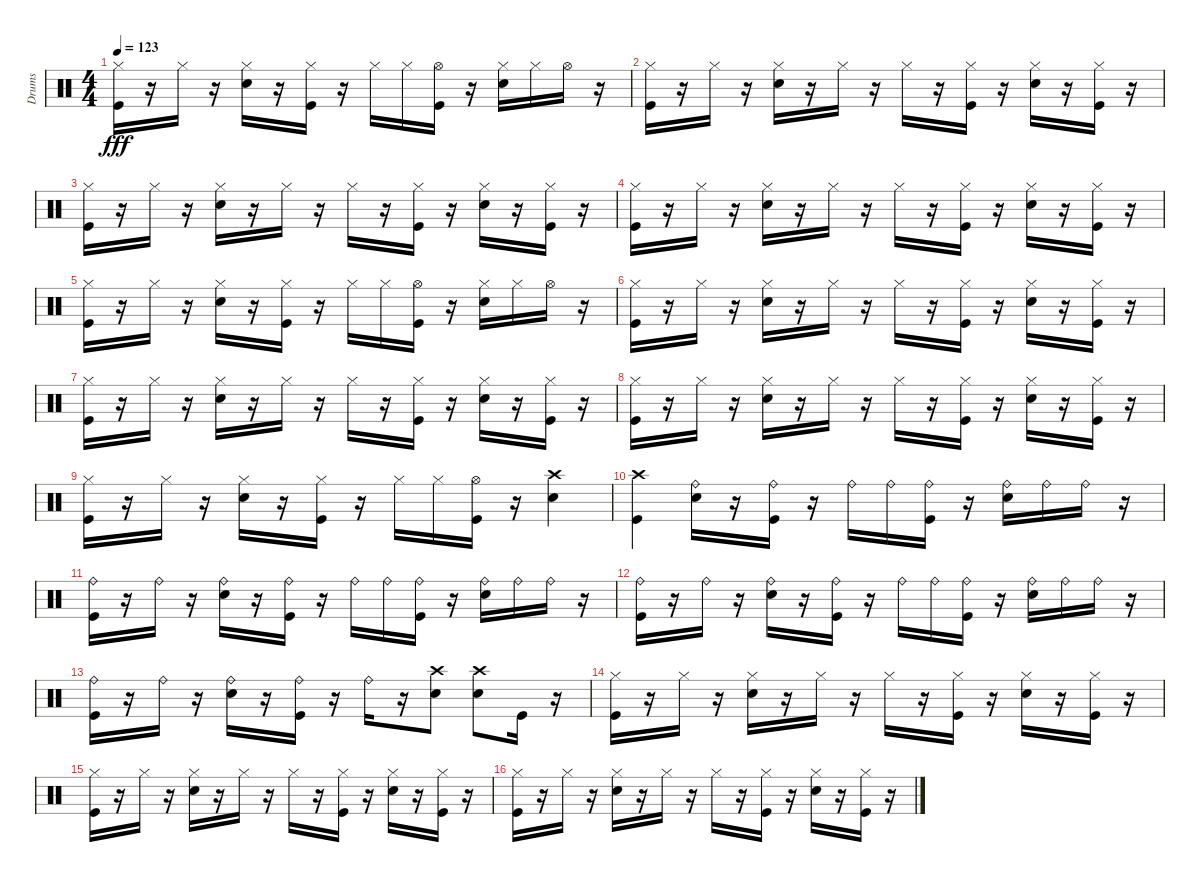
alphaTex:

\track ("Drums" "Drums") {instrument percussion}
\staff {score}
\articulation defaults
\ts (4 4)
\tempo 123
\clef neutral
\ks c
("Kick (hit)" "Hi-Hat (closed)").16{dy fff} r.16 "Hi-Hat (closed)".16 r.16 ("Snare (hit) 2" "Hi-Hat (closed)").16 r.16 ("Kick (hit)" "Hi-Hat (closed)").16 r.16 "Hi-Hat (closed)".16 "Hi-Hat (closed)".16 ("Kick (hit)" "Hi-Hat (open)").16 r.16 ("Hi-Hat (closed)" "Snare (hit) 2").16 "Hi-Hat (closed)".16 "Hi-Hat (open)".16 r.16 |
("Kick (hit)" "Hi-Hat (closed)").16 r.16 "Hi-Hat (closed)".16 r.16 ("Snare (hit) 2" "Hi-Hat (closed)").16 r.16 "Hi-Hat (closed)".16 r.16 "Hi-Hat (closed)".16 r.16 ("Kick (hit)" "Hi-Hat (closed)").16 r.16 ("Snare (hit) 2" "Hi-Hat (closed)").16 r.16 ("Kick (hit)" "Hi-Hat (closed)").16 r.16 |
("Kick (hit)" "Hi-Hat (closed)").16 r.16 "Hi-Hat (closed)".16 r.16 ("Snare (hit) 2" "Hi-Hat (closed)").16 r.16 "Hi-Hat (closed)".16 r.16 "Hi-Hat (closed)".16 r.16 ("Kick (hit)" "Hi-Hat (closed)").16 r.16 ("Snare (hit) 2" "Hi-Hat (closed)").16 r.16 ("Kick (hit)" "Hi-Hat (closed)").16 r.16 |
("Kick (hit)" "Hi-Hat (closed)").16 r.16 "Hi-Hat (closed)".16 r.16 ("Snare (hit) 2" "Hi-Hat (closed)").16 r.16 "Hi-Hat (closed)".16 r.16 "Hi-Hat (closed)".16 r.16 ("Kick (hit)" "Hi-Hat (closed)").16 r.16 ("Snare (hit) 2" "Hi-Hat (closed)").16 r.16 ("Kick (hit)" "Hi-Hat (closed)").16 r.16 |
("Kick (hit)" "Hi-Hat (closed)").16 r.16 "Hi-Hat (closed)".16 r.16 ("Snare (hit) 2" "Hi-Hat (closed)").16 r.16 ("Kick (hit)" "Hi-Hat (closed)").16 r.16 "Hi-Hat (closed)".16 "Hi-Hat (closed)".16 ("Kick (hit)" "Hi-Hat (open)").16 r.16 ("Snare (hit) 2" "Hi-Hat (closed)").16 "Hi-Hat (closed)".16 "Hi-Hat (open)".16 r.16 |
("Kick (hit)" "Hi-Hat (closed)").16 r.16 "Hi-Hat (closed)".16 r.16 ("Snare (hit) 2" "Hi-Hat (closed)").16 r.16 "Hi-Hat (closed)".16 r.16 "Hi-Hat (closed)".16 r.16 ("Kick (hit)" "Hi-Hat (closed)").16 r.16 ("Snare (hit) 2" "Hi-Hat (closed)").16 r.16 ("Kick (hit)" "Hi-Hat (closed)").16 r.16 |
("Kick (hit)" "Hi-Hat (closed)").16 r.16 "Hi-Hat (closed)".16 r.16 ("Snare (hit) 2" "Hi-Hat (closed)").16 r.16 "Hi-Hat (closed)".16 r.16 "Hi-Hat (closed)".16 r.16 ("Kick (hit)" "Hi-Hat (closed)").16 r.16 ("Snare (hit) 2" "Hi-Hat (closed)").16 r.16 ("Kick (hit)" "Hi-Hat (closed)").16 r.16 |
("Kick (hit)" "Hi-Hat (closed)").16 r.16 "Hi-Hat (closed)".16 r.16 ("Snare (hit) 2" "Hi-Hat (closed)").16 r.16 "Hi-Hat (closed)".16 r.16 "Hi-Hat (closed)".16 r.16 ("Kick (hit)" "Hi-Hat (closed)").16 r.16 ("Snare (hit) 2" "Hi-Hat (closed)").16 r.16 ("Kick (hit)" "Hi-Hat (closed)").16 r.16 |
("Kick (hit)" "Hi-Hat (closed)").16 r.16 "Hi-Hat (closed)".16 r.16 ("Snare (hit) 2" "Hi-Hat (closed)").16 r.16 ("Kick (hit)" "Hi-Hat (closed)").16 r.16 "Hi-Hat (closed)".16 "Hi-Hat (closed)".16 ("Kick (hit)" "Hi-Hat (open)").16 r.16 ("Snare (hit) 2" "Crash high (hit)").4 |
("Kick (hit)" "Crash high (hit)").4 ("Snare (hit) 2" "Ride (bell)").16 r.16 ("Kick (hit)" "Ride (bell)").16 r.16 "Ride (bell)".16 "Ride (bell)".16 ("Kick (hit)" "Ride (bell)").16 r.16 ("Snare (hit) 2" "Ride (bell)").16 "Ride (bell)".16 "Ride (bell)".16 r.16 |
("Ride (bell)" "Kick (hit)").16 r.16 "Ride (bell)".16 r.16 ("Ride (bell)" "Snare (hit) 2").16 r.16 ("Ride (bell)" "Kick (hit)").16 r.16 "Ride (bell)".16 "Ride (bell)".16 ("Ride (bell)" "Kick (hit)").16 r.16 ("Ride (bell)" "Snare (hit) 2").16 "Ride (bell)".16 "Ride (bell)".16 r.16 |
("Ride (bell)" "Kick (hit)").16 r.16 "Ride (bell)".16 r.16 ("Ride (bell)" "Snare (hit) 2").16 r.16 ("Ride (bell)" "Kick (hit)").16 r.16 "Ride (bell)".16 "Ride (bell)".16 ("Ride (bell)" "Kick (hit)").16 r.16 ("Ride (bell)" "Snare (hit) 2").16 "Ride (bell)".16 "Ride (bell)".16 r.16 |
("Kick (hit)" "Ride (bell)").16 r.16 "Ride (bell)".16 r.16 ("Snare (hit) 2" "Ride (bell)").16 r.16 ("Kick (hit)" "Ride (bell)").16 r.16 "Ride (bell)".16 r.16 ("Snare (hit) 2" "Crash high (hit)").8 ("Snare (hit) 2" "Crash high (hit)").8 "Kick (hit)".16 r.16 |
("Kick (hit)" "Hi-Hat (closed)").16 r.16 "Hi-Hat (closed)".16 r.16 ("Snare (hit) 2" "Hi-Hat (closed)").16 r.16 "Hi-Hat (closed)".16 r.16 "Hi-Hat (closed)".16 r.16 ("Kick (hit)" "Hi-Hat (closed)").16 r.16 ("Snare (hit) 2" "Hi-Hat (closed)").16 r.16 ("Kick (hit)" "Hi-Hat (closed)").16 r.16 |
("Kick (hit)" "Hi-Hat (closed)").16 r.16 "Hi-Hat (closed)".16 r.16 ("Snare (hit) 2" "Hi-Hat (closed)").16 r.16 "Hi-Hat (closed)".16 r.16 "Hi-Hat (closed)".16 r.16 ("Kick (hit)" "Hi-Hat (closed)").16 r.16 ("Snare (hit) 2" "Hi-Hat (closed)").16 r.16 ("Kick (hit)" "Hi-Hat (closed)").16 r.16 |
("Kick (hit)" "Hi-Hat (closed)").16 r.16 "Hi-Hat (closed)".16 r.16 ("Snare (hit) 2" "Hi-Hat (closed)").16 r.16 "Hi-Hat (closed)".16 r.16 "Hi-Hat (closed)".16 r.16 ("Kick (hit)" "Hi-Hat (closed)").16 r.16 ("Snare (hit) 2" "Hi-Hat (closed)").16 r.16 ("Kick (hit)" "Hi-Hat (closed)").16 r.16
